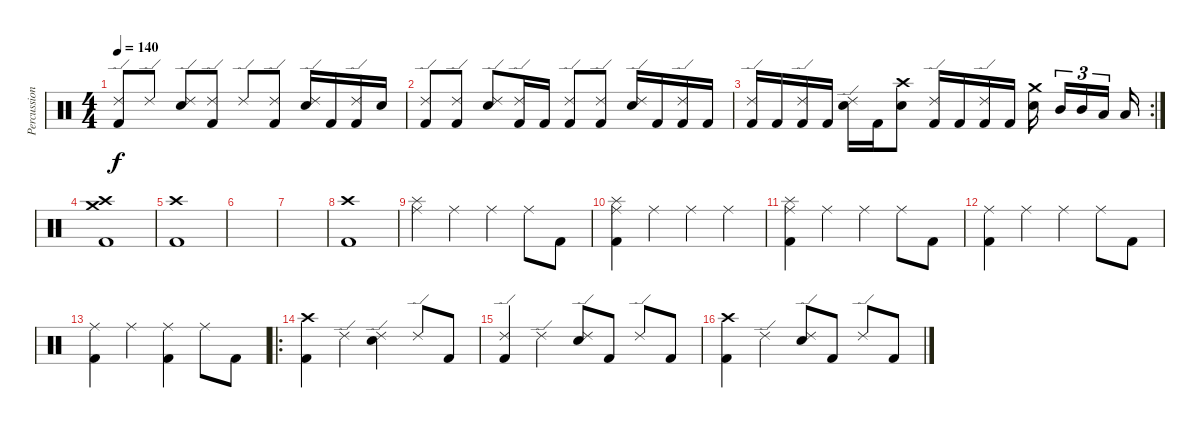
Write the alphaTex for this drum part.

\track ("Percussions" "Percussion") {instrument percussion}
\staff {score}
\articulation defaults
\ts (4 4)
\tempo 140
\clef neutral
\ks c
("Ride (edge) 2" "Kick (hit) 2").8{dy f} "Ride (edge) 2".8 ("Ride (edge) 2" "Snare (hit) 2").8 ("Ride (edge) 2" "Kick (hit) 2").8 "Ride (edge) 2".8 ("Ride (edge) 2" "Kick (hit) 2").8 ("Ride (edge) 2" "Snare (hit) 2").16 "Kick (hit) 2".16 ("Ride (edge) 2" "Kick (hit) 2").16 "Snare (hit) 2".16 |
("Ride (edge) 2" "Kick (hit) 2").8 ("Ride (edge) 2" "Kick (hit) 2").8 ("Ride (edge) 2" "Snare (hit) 2").8 ("Ride (edge) 2" "Kick (hit) 2").16 "Kick (hit) 2".16 ("Ride (edge) 2" "Kick (hit) 2").8 ("Ride (edge) 2" "Kick (hit) 2").8 ("Ride (edge) 2" "Snare (hit) 2").16 "Kick (hit) 2".16 ("Ride (edge) 2" "Kick (hit) 2").16 "Kick (hit) 2".16 |
\rc 2
("Ride (edge) 2" "Kick (hit) 2").16 "Kick (hit) 2".16 ("Ride (edge) 2" "Kick (hit) 2").16 "Kick (hit) 2".16 ("Ride (edge) 2" "Snare (hit) 2").16 "Kick (hit) 2".16 ("Crash high (hit)" "Snare (hit) 2").8 ("Ride (edge) 2" "Kick (hit) 2").16 "Kick (hit) 2".16 ("Ride (edge) 2" "Kick (hit) 2").16 "Kick (hit) 2".16 ("Crash medium (hit)" "Snare (hit) 2").16 "Mid Tom (hit)".16{tu (3 2)} "Mid Tom (hit)".16{tu (3 2)} "Low Tom (hit)".16{tu (3 2)} "Low Floor Tom (hit)".16 |
("Crash high (hit)" "Crash medium (hit)" "Kick (hit) 2").1 |
("Crash high (hit)" "Kick (hit) 2").1 |
|
|
("Crash high (hit)" "Kick (hit) 2").1 |
("Splash (hit)" "Ride (middle)").4 "Ride (middle)".4 "Ride (middle)".4 "Ride (middle)".8 "Kick (hit) 2".8 |
("Ride (middle)" "Splash (hit)" "Kick (hit) 2").4 "Ride (middle)".4 "Ride (middle)".4 "Ride (middle)".4 |
("Splash (hit)" "Ride (middle)" "Kick (hit) 2").4 "Ride (middle)".4 "Ride (middle)".4 "Ride (middle)".8 "Kick (hit) 2".8 |
("Ride (middle)" "Kick (hit) 2").4 "Ride (middle)".4 "Ride (middle)".4 "Ride (middle)".8 "Kick (hit) 2".8 |
("Ride (middle)" "Kick (hit) 2").4 "Ride (middle)".4 ("Ride (middle)" "Kick (hit) 2").4 "Ride (middle)".8 "Kick (hit) 2".8 |
\ro
("Crash high (hit)" "Kick (hit) 2").4 "Ride (edge) 2".4 ("Ride (edge) 2" "Snare (hit) 2").4 "Ride (edge) 2".8 "Kick (hit) 2".8 |
("Ride (edge) 2" "Kick (hit) 2").4 "Ride (edge) 2".4 ("Ride (edge) 2" "Snare (hit) 2").8 "Kick (hit) 2".8 "Ride (edge) 2".8 "Kick (hit) 2".8 |
("Crash high (hit)" "Kick (hit) 2").4 "Ride (edge) 2".4 ("Ride (edge) 2" "Snare (hit) 2").8 "Kick (hit) 2".8 "Ride (edge) 2".8 "Kick (hit) 2".8
